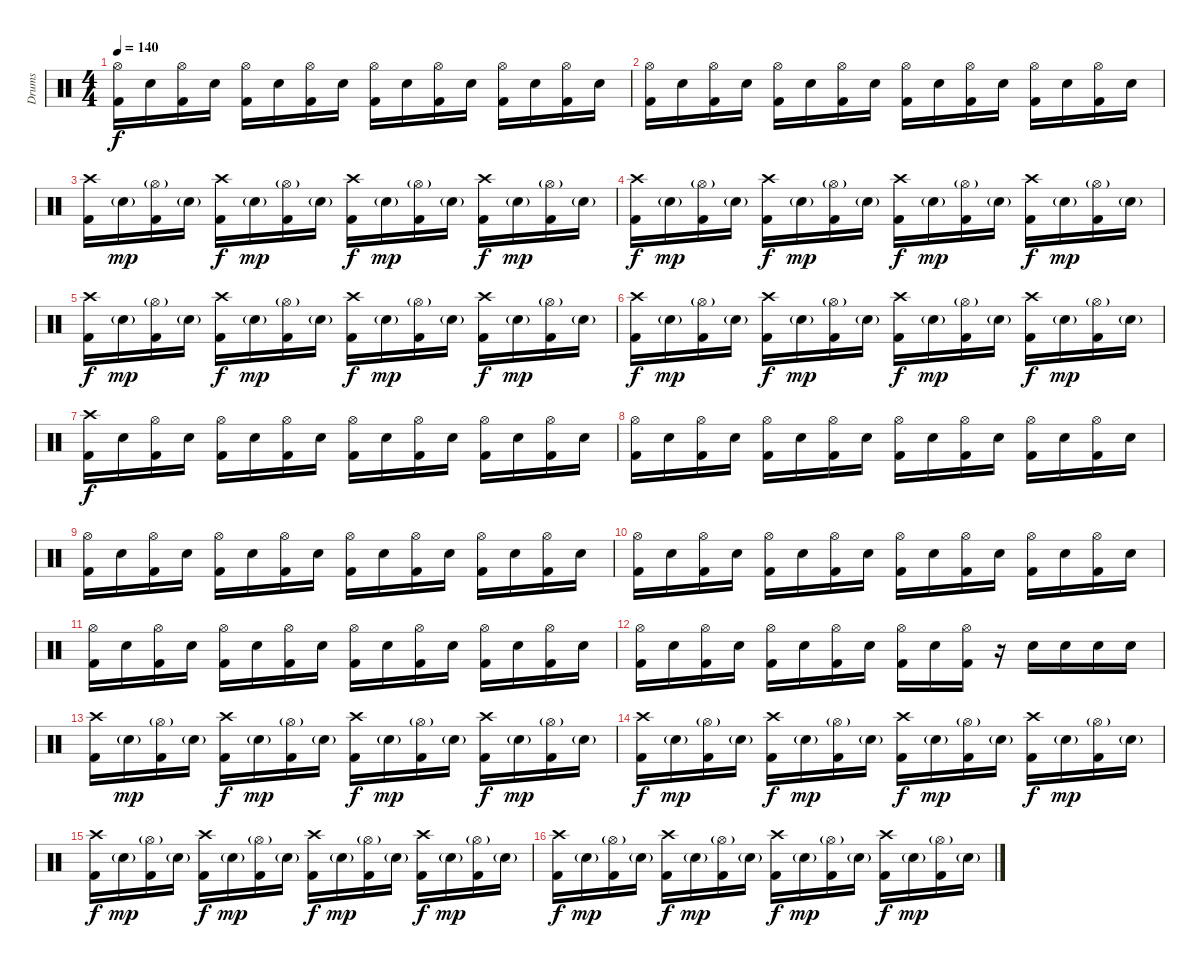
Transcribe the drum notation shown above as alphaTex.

\track ("Drums" "Drums") {instrument percussion}
\staff {score}
\articulation defaults
\ts (4 4)
\tempo 140
\clef neutral
\ks c
("Kick (hit) 2" "Hi-Hat (open)").16{dy f} "Electric Snare (hit)".16 ("Kick (hit) 2" "Hi-Hat (open)").16 "Electric Snare (hit)".16 ("Kick (hit) 2" "Hi-Hat (open)").16 "Electric Snare (hit)".16 ("Kick (hit) 2" "Hi-Hat (open)").16 "Electric Snare (hit)".16 ("Kick (hit) 2" "Hi-Hat (open)").16 "Electric Snare (hit)".16 ("Kick (hit) 2" "Hi-Hat (open)").16 "Electric Snare (hit)".16 ("Kick (hit) 2" "Hi-Hat (open)").16 "Electric Snare (hit)".16 ("Kick (hit) 2" "Hi-Hat (open)").16 "Electric Snare (hit)".16 |
("Kick (hit) 2" "Hi-Hat (open)").16 "Electric Snare (hit)".16 ("Kick (hit) 2" "Hi-Hat (open)").16 "Electric Snare (hit)".16 ("Kick (hit) 2" "Hi-Hat (open)").16 "Electric Snare (hit)".16 ("Kick (hit) 2" "Hi-Hat (open)").16 "Electric Snare (hit)".16 ("Kick (hit) 2" "Hi-Hat (open)").16 "Electric Snare (hit)".16 ("Kick (hit) 2" "Hi-Hat (open)").16 "Electric Snare (hit)".16 ("Kick (hit) 2" "Hi-Hat (open)").16 "Electric Snare (hit)".16 ("Kick (hit) 2" "Hi-Hat (open)").16 "Electric Snare (hit)".16 |
("Kick (hit) 2" "Crash high (hit)").16 "Electric Snare (hit)"{g}.16{dy mp} ("Kick (hit) 2" "Hi-Hat (open)"{g}).16 "Electric Snare (hit)"{g}.16 ("Kick (hit) 2" "Crash high (hit)").16{dy f} "Electric Snare (hit)"{g}.16{dy mp} ("Kick (hit) 2" "Hi-Hat (open)"{g}).16 "Electric Snare (hit)"{g}.16 ("Kick (hit) 2" "Crash high (hit)").16{dy f} "Electric Snare (hit)"{g}.16{dy mp} ("Kick (hit) 2" "Hi-Hat (open)"{g}).16 "Electric Snare (hit)"{g}.16 ("Kick (hit) 2" "Crash high (hit)").16{dy f} "Electric Snare (hit)"{g}.16{dy mp} ("Kick (hit) 2" "Hi-Hat (open)"{g}).16 "Electric Snare (hit)"{g}.16 |
("Kick (hit) 2" "Crash high (hit)").16{dy f} "Electric Snare (hit)"{g}.16{dy mp} ("Kick (hit) 2" "Hi-Hat (open)"{g}).16 "Electric Snare (hit)"{g}.16 ("Kick (hit) 2" "Crash high (hit)").16{dy f} "Electric Snare (hit)"{g}.16{dy mp} ("Kick (hit) 2" "Hi-Hat (open)"{g}).16 "Electric Snare (hit)"{g}.16 ("Kick (hit) 2" "Crash high (hit)").16{dy f} "Electric Snare (hit)"{g}.16{dy mp} ("Kick (hit) 2" "Hi-Hat (open)"{g}).16 "Electric Snare (hit)"{g}.16 ("Kick (hit) 2" "Crash high (hit)").16{dy f} "Electric Snare (hit)"{g}.16{dy mp} ("Kick (hit) 2" "Hi-Hat (open)"{g}).16 "Electric Snare (hit)"{g}.16 |
("Kick (hit) 2" "Crash high (hit)").16{dy f} "Electric Snare (hit)"{g}.16{dy mp} ("Kick (hit) 2" "Hi-Hat (open)"{g}).16 "Electric Snare (hit)"{g}.16 ("Kick (hit) 2" "Crash high (hit)").16{dy f} "Electric Snare (hit)"{g}.16{dy mp} ("Kick (hit) 2" "Hi-Hat (open)"{g}).16 "Electric Snare (hit)"{g}.16 ("Kick (hit) 2" "Crash high (hit)").16{dy f} "Electric Snare (hit)"{g}.16{dy mp} ("Kick (hit) 2" "Hi-Hat (open)"{g}).16 "Electric Snare (hit)"{g}.16 ("Kick (hit) 2" "Crash high (hit)").16{dy f} "Electric Snare (hit)"{g}.16{dy mp} ("Kick (hit) 2" "Hi-Hat (open)"{g}).16 "Electric Snare (hit)"{g}.16 |
("Kick (hit) 2" "Crash high (hit)").16{dy f} "Electric Snare (hit)"{g}.16{dy mp} ("Kick (hit) 2" "Hi-Hat (open)"{g}).16 "Electric Snare (hit)"{g}.16 ("Kick (hit) 2" "Crash high (hit)").16{dy f} "Electric Snare (hit)"{g}.16{dy mp} ("Kick (hit) 2" "Hi-Hat (open)"{g}).16 "Electric Snare (hit)"{g}.16 ("Kick (hit) 2" "Crash high (hit)").16{dy f} "Electric Snare (hit)"{g}.16{dy mp} ("Kick (hit) 2" "Hi-Hat (open)"{g}).16 "Electric Snare (hit)"{g}.16 ("Kick (hit) 2" "Crash high (hit)").16{dy f} "Electric Snare (hit)"{g}.16{dy mp} ("Kick (hit) 2" "Hi-Hat (open)"{g}).16 "Electric Snare (hit)"{g}.16 |
("Kick (hit) 2" "Crash high (hit)").16{dy f} "Electric Snare (hit)".16 ("Kick (hit) 2" "Hi-Hat (open)").16 "Electric Snare (hit)".16 ("Kick (hit) 2" "Hi-Hat (open)").16 "Electric Snare (hit)".16 ("Kick (hit) 2" "Hi-Hat (open)").16 "Electric Snare (hit)".16 ("Kick (hit) 2" "Hi-Hat (open)").16 "Electric Snare (hit)".16 ("Kick (hit) 2" "Hi-Hat (open)").16 "Electric Snare (hit)".16 ("Kick (hit) 2" "Hi-Hat (open)").16 "Electric Snare (hit)".16 ("Kick (hit) 2" "Hi-Hat (open)").16 "Electric Snare (hit)".16 |
("Kick (hit) 2" "Hi-Hat (open)").16 "Electric Snare (hit)".16 ("Kick (hit) 2" "Hi-Hat (open)").16 "Electric Snare (hit)".16 ("Kick (hit) 2" "Hi-Hat (open)").16 "Electric Snare (hit)".16 ("Kick (hit) 2" "Hi-Hat (open)").16 "Electric Snare (hit)".16 ("Kick (hit) 2" "Hi-Hat (open)").16 "Electric Snare (hit)".16 ("Kick (hit) 2" "Hi-Hat (open)").16 "Electric Snare (hit)".16 ("Kick (hit) 2" "Hi-Hat (open)").16 "Electric Snare (hit)".16 ("Kick (hit) 2" "Hi-Hat (open)").16 "Electric Snare (hit)".16 |
("Kick (hit) 2" "Hi-Hat (open)").16 "Electric Snare (hit)".16 ("Kick (hit) 2" "Hi-Hat (open)").16 "Electric Snare (hit)".16 ("Kick (hit) 2" "Hi-Hat (open)").16 "Electric Snare (hit)".16 ("Kick (hit) 2" "Hi-Hat (open)").16 "Electric Snare (hit)".16 ("Kick (hit) 2" "Hi-Hat (open)").16 "Electric Snare (hit)".16 ("Kick (hit) 2" "Hi-Hat (open)").16 "Electric Snare (hit)".16 ("Kick (hit) 2" "Hi-Hat (open)").16 "Electric Snare (hit)".16 ("Kick (hit) 2" "Hi-Hat (open)").16 "Electric Snare (hit)".16 |
("Kick (hit) 2" "Hi-Hat (open)").16 "Electric Snare (hit)".16 ("Kick (hit) 2" "Hi-Hat (open)").16 "Electric Snare (hit)".16 ("Kick (hit) 2" "Hi-Hat (open)").16 "Electric Snare (hit)".16 ("Kick (hit) 2" "Hi-Hat (open)").16 "Electric Snare (hit)".16 ("Kick (hit) 2" "Hi-Hat (open)").16 "Electric Snare (hit)".16 ("Kick (hit) 2" "Hi-Hat (open)").16 "Electric Snare (hit)".16 ("Kick (hit) 2" "Hi-Hat (open)").16 "Electric Snare (hit)".16 ("Kick (hit) 2" "Hi-Hat (open)").16 "Electric Snare (hit)".16 |
("Kick (hit) 2" "Hi-Hat (open)").16 "Electric Snare (hit)".16 ("Kick (hit) 2" "Hi-Hat (open)").16 "Electric Snare (hit)".16 ("Kick (hit) 2" "Hi-Hat (open)").16 "Electric Snare (hit)".16 ("Kick (hit) 2" "Hi-Hat (open)").16 "Electric Snare (hit)".16 ("Kick (hit) 2" "Hi-Hat (open)").16 "Electric Snare (hit)".16 ("Kick (hit) 2" "Hi-Hat (open)").16 "Electric Snare (hit)".16 ("Kick (hit) 2" "Hi-Hat (open)").16 "Electric Snare (hit)".16 ("Kick (hit) 2" "Hi-Hat (open)").16 "Electric Snare (hit)".16 |
("Kick (hit) 2" "Hi-Hat (open)").16 "Electric Snare (hit)".16 ("Kick (hit) 2" "Hi-Hat (open)").16 "Electric Snare (hit)".16 ("Kick (hit) 2" "Hi-Hat (open)").16 "Electric Snare (hit)".16 ("Kick (hit) 2" "Hi-Hat (open)").16 "Electric Snare (hit)".16 ("Kick (hit) 2" "Hi-Hat (open)").16 "Electric Snare (hit)".16 ("Kick (hit) 2" "Hi-Hat (open)").16 r.16 "Electric Snare (hit)".16 "Electric Snare (hit)".16 "Electric Snare (hit)".16 "Electric Snare (hit)".16 |
("Kick (hit) 2" "Crash high (hit)").16 "Electric Snare (hit)"{g}.16{dy mp} ("Kick (hit) 2" "Hi-Hat (open)"{g}).16 "Electric Snare (hit)"{g}.16 ("Kick (hit) 2" "Crash high (hit)").16{dy f} "Electric Snare (hit)"{g}.16{dy mp} ("Kick (hit) 2" "Hi-Hat (open)"{g}).16 "Electric Snare (hit)"{g}.16 ("Kick (hit) 2" "Crash high (hit)").16{dy f} "Electric Snare (hit)"{g}.16{dy mp} ("Kick (hit) 2" "Hi-Hat (open)"{g}).16 "Electric Snare (hit)"{g}.16 ("Kick (hit) 2" "Crash high (hit)").16{dy f} "Electric Snare (hit)"{g}.16{dy mp} ("Kick (hit) 2" "Hi-Hat (open)"{g}).16 "Electric Snare (hit)"{g}.16 |
("Kick (hit) 2" "Crash high (hit)").16{dy f} "Electric Snare (hit)"{g}.16{dy mp} ("Kick (hit) 2" "Hi-Hat (open)"{g}).16 "Electric Snare (hit)"{g}.16 ("Kick (hit) 2" "Crash high (hit)").16{dy f} "Electric Snare (hit)"{g}.16{dy mp} ("Kick (hit) 2" "Hi-Hat (open)"{g}).16 "Electric Snare (hit)"{g}.16 ("Kick (hit) 2" "Crash high (hit)").16{dy f} "Electric Snare (hit)"{g}.16{dy mp} ("Kick (hit) 2" "Hi-Hat (open)"{g}).16 "Electric Snare (hit)"{g}.16 ("Kick (hit) 2" "Crash high (hit)").16{dy f} "Electric Snare (hit)"{g}.16{dy mp} ("Kick (hit) 2" "Hi-Hat (open)"{g}).16 "Electric Snare (hit)"{g}.16 |
("Kick (hit) 2" "Crash high (hit)").16{dy f} "Electric Snare (hit)"{g}.16{dy mp} ("Kick (hit) 2" "Hi-Hat (open)"{g}).16 "Electric Snare (hit)"{g}.16 ("Kick (hit) 2" "Crash high (hit)").16{dy f} "Electric Snare (hit)"{g}.16{dy mp} ("Kick (hit) 2" "Hi-Hat (open)"{g}).16 "Electric Snare (hit)"{g}.16 ("Kick (hit) 2" "Crash high (hit)").16{dy f} "Electric Snare (hit)"{g}.16{dy mp} ("Kick (hit) 2" "Hi-Hat (open)"{g}).16 "Electric Snare (hit)"{g}.16 ("Kick (hit) 2" "Crash high (hit)").16{dy f} "Electric Snare (hit)"{g}.16{dy mp} ("Kick (hit) 2" "Hi-Hat (open)"{g}).16 "Electric Snare (hit)"{g}.16 |
("Kick (hit) 2" "Crash high (hit)").16{dy f} "Electric Snare (hit)"{g}.16{dy mp} ("Kick (hit) 2" "Hi-Hat (open)"{g}).16 "Electric Snare (hit)"{g}.16 ("Kick (hit) 2" "Crash high (hit)").16{dy f} "Electric Snare (hit)"{g}.16{dy mp} ("Kick (hit) 2" "Hi-Hat (open)"{g}).16 "Electric Snare (hit)"{g}.16 ("Kick (hit) 2" "Crash high (hit)").16{dy f} "Electric Snare (hit)"{g}.16{dy mp} ("Kick (hit) 2" "Hi-Hat (open)"{g}).16 "Electric Snare (hit)"{g}.16 ("Kick (hit) 2" "Crash high (hit)").16{dy f} "Electric Snare (hit)"{g}.16{dy mp} ("Kick (hit) 2" "Hi-Hat (open)"{g}).16 "Electric Snare (hit)"{g}.16
